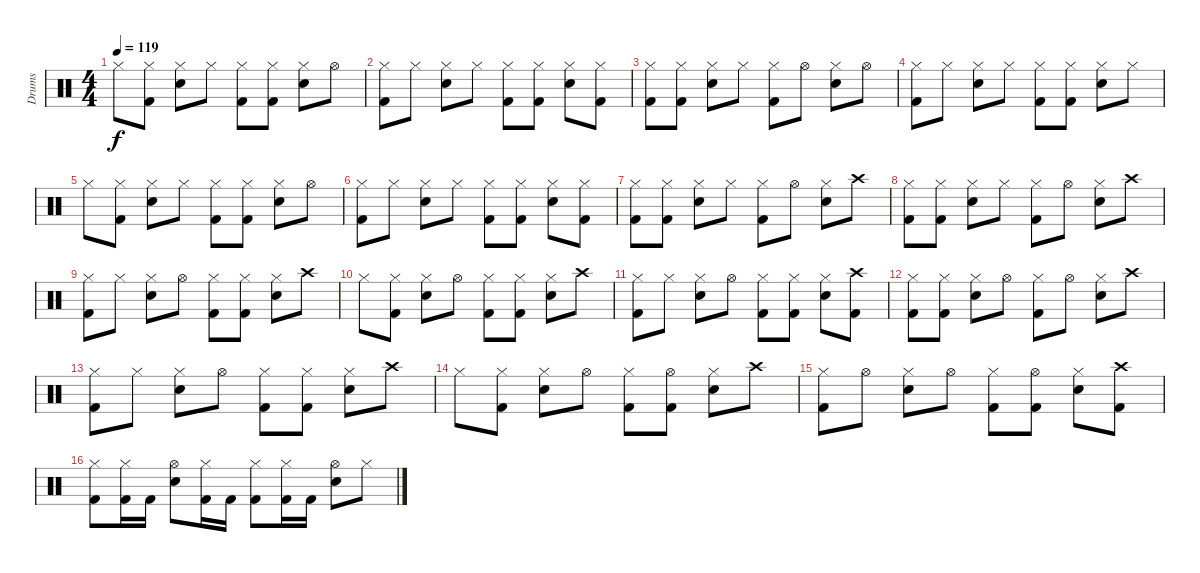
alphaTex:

\track ("Drums" "Drums") {instrument percussion}
\staff {score}
\articulation defaults
\ts (4 4)
\tempo 119
\clef neutral
\ks c "Hi-Hat (closed)".8{dy f}
("Hi-Hat (closed)" "Kick (hit) 2").8 ("Hi-Hat (closed)" "Snare (hit) 2").8 "Hi-Hat (closed)".8 ("Hi-Hat (closed)" "Kick (hit) 2").8 ("Hi-Hat (closed)" "Kick (hit) 2").8 ("Hi-Hat (closed)" "Snare (hit) 2").8 "Hi-Hat (open)".8 |
("Hi-Hat (closed)" "Kick (hit) 2").8 "Hi-Hat (closed)".8 ("Hi-Hat (closed)" "Snare (hit) 2").8 "Hi-Hat (closed)".8 ("Hi-Hat (closed)" "Kick (hit) 2").8 ("Hi-Hat (closed)" "Kick (hit) 2").8 ("Hi-Hat (closed)" "Snare (hit) 2").8 ("Hi-Hat (closed)" "Kick (hit) 2").8 |
("Hi-Hat (closed)" "Kick (hit) 2").8 ("Hi-Hat (closed)" "Kick (hit) 2").8 ("Hi-Hat (closed)" "Snare (hit) 2").8 "Hi-Hat (closed)".8 ("Hi-Hat (closed)" "Kick (hit) 2").8 "Hi-Hat (open)".8 ("Hi-Hat (closed)" "Snare (hit) 2").8 "Hi-Hat (open)".8 |
("Hi-Hat (closed)" "Kick (hit) 2").8 "Hi-Hat (closed)".8 ("Hi-Hat (closed)" "Snare (hit) 2").8 "Hi-Hat (closed)".8 ("Hi-Hat (closed)" "Kick (hit) 2").8 ("Hi-Hat (closed)" "Kick (hit) 2").8 ("Hi-Hat (closed)" "Snare (hit) 2").8 "Hi-Hat (closed)".8 |
"Hi-Hat (closed)".8 ("Hi-Hat (closed)" "Kick (hit) 2").8 ("Hi-Hat (closed)" "Snare (hit) 2").8 "Hi-Hat (closed)".8 ("Hi-Hat (closed)" "Kick (hit) 2").8 ("Hi-Hat (closed)" "Kick (hit) 2").8 ("Hi-Hat (closed)" "Snare (hit) 2").8 "Hi-Hat (open)".8 |
("Hi-Hat (closed)" "Kick (hit) 2").8 "Hi-Hat (closed)".8 ("Hi-Hat (closed)" "Snare (hit) 2").8 "Hi-Hat (closed)".8 ("Hi-Hat (closed)" "Kick (hit) 2").8 ("Hi-Hat (closed)" "Kick (hit) 2").8 ("Hi-Hat (closed)" "Snare (hit) 2").8 ("Hi-Hat (closed)" "Kick (hit) 2").8 |
("Hi-Hat (closed)" "Kick (hit) 2").8 ("Hi-Hat (closed)" "Kick (hit) 2").8 ("Hi-Hat (closed)" "Snare (hit) 2").8 "Hi-Hat (closed)".8 ("Hi-Hat (closed)" "Kick (hit) 2").8 "Hi-Hat (open)".8 ("Hi-Hat (closed)" "Snare (hit) 2").8 "Crash high (hit)".8 |
("Hi-Hat (closed)" "Kick (hit) 2").8 ("Hi-Hat (closed)" "Kick (hit) 2").8 ("Hi-Hat (closed)" "Snare (hit) 2").8 "Hi-Hat (closed)".8 ("Hi-Hat (closed)" "Kick (hit) 2").8 "Hi-Hat (open)".8 ("Hi-Hat (closed)" "Snare (hit) 2").8 "Crash high (hit)".8 |
("Hi-Hat (closed)" "Kick (hit) 2").8 "Hi-Hat (closed)".8 ("Hi-Hat (closed)" "Snare (hit) 2").8 "Hi-Hat (open)".8 ("Hi-Hat (closed)" "Kick (hit) 2").8 ("Hi-Hat (closed)" "Kick (hit) 2").8 ("Hi-Hat (closed)" "Snare (hit) 2").8 "Crash high (hit)".8 |
"Hi-Hat (closed)".8 ("Hi-Hat (closed)" "Kick (hit) 2").8 ("Hi-Hat (closed)" "Snare (hit) 2").8 "Hi-Hat (open)".8 ("Hi-Hat (closed)" "Kick (hit) 2").8 ("Hi-Hat (closed)" "Kick (hit) 2").8 ("Hi-Hat (closed)" "Snare (hit) 2").8 "Crash high (hit)".8 |
("Hi-Hat (closed)" "Kick (hit) 2").8 "Hi-Hat (closed)".8 ("Hi-Hat (closed)" "Snare (hit) 2").8 "Hi-Hat (open)".8 ("Hi-Hat (closed)" "Kick (hit) 2").8 ("Hi-Hat (closed)" "Kick (hit) 2").8 ("Hi-Hat (closed)" "Snare (hit) 2").8 ("Crash high (hit)" "Kick (hit) 2").8 |
("Hi-Hat (closed)" "Kick (hit) 2").8 ("Hi-Hat (closed)" "Kick (hit) 2").8 ("Hi-Hat (closed)" "Snare (hit) 2").8 "Hi-Hat (open)".8 ("Hi-Hat (closed)" "Kick (hit) 2").8 "Hi-Hat (open)".8 ("Hi-Hat (closed)" "Snare (hit) 2").8 "Crash high (hit)".8 |
("Hi-Hat (closed)" "Kick (hit) 2").8 "Hi-Hat (closed)".8 ("Hi-Hat (closed)" "Snare (hit) 2").8 "Hi-Hat (open)".8 ("Hi-Hat (closed)" "Kick (hit) 2").8 ("Hi-Hat (closed)" "Kick (hit) 2").8 ("Hi-Hat (closed)" "Snare (hit) 2").8 "Crash high (hit)".8 |
"Hi-Hat (closed)".8 ("Hi-Hat (closed)" "Kick (hit) 2").8 ("Hi-Hat (closed)" "Snare (hit) 2").8 "Hi-Hat (open)".8 ("Hi-Hat (closed)" "Kick (hit) 2").8 ("Hi-Hat (open)" "Kick (hit) 2").8 ("Hi-Hat (closed)" "Snare (hit) 2").8 "Crash high (hit)".8 |
("Hi-Hat (closed)" "Kick (hit) 2").8 "Hi-Hat (open)".8 ("Hi-Hat (closed)" "Snare (hit) 2").8 "Hi-Hat (open)".8 ("Hi-Hat (closed)" "Kick (hit) 2").8 ("Hi-Hat (open)" "Kick (hit) 2").8 ("Hi-Hat (closed)" "Snare (hit) 2").8 ("Crash high (hit)" "Kick (hit) 2").8 |
("Hi-Hat (closed)" "Kick (hit) 2").8 ("Hi-Hat (closed)" "Kick (hit) 2").16 "Kick (hit) 2".16 ("Hi-Hat (open)" "Snare (hit) 2").8 ("Hi-Hat (closed)" "Kick (hit) 2").16 "Kick (hit) 2".16 ("Hi-Hat (closed)" "Kick (hit) 2").8 ("Hi-Hat (closed)" "Kick (hit) 2").16 "Kick (hit) 2".16 ("Hi-Hat (open)" "Snare (hit) 2").8 "Hi-Hat (closed)".8
